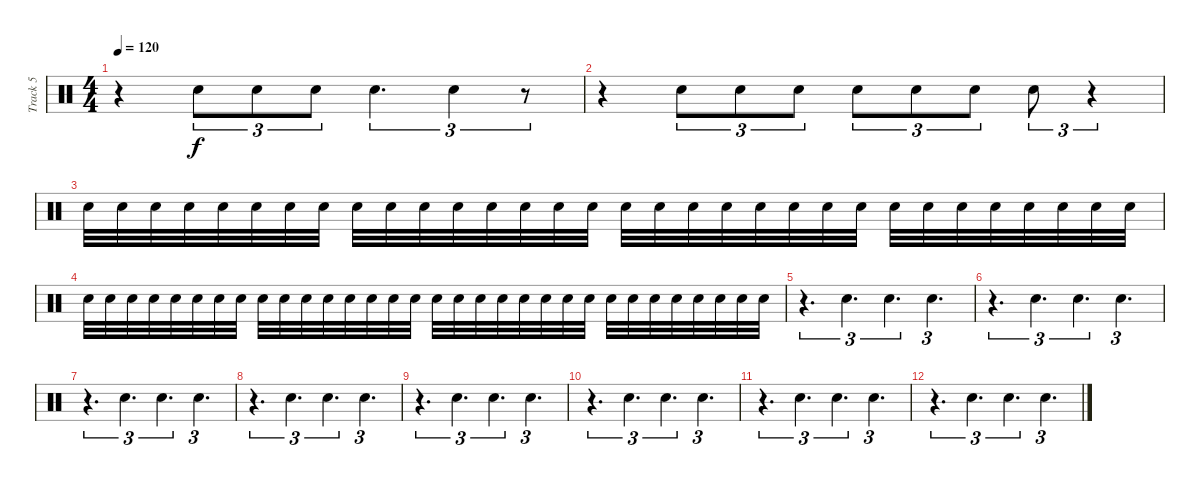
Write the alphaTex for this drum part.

\track ("Track 5" "Track 5") {instrument percussion}
\staff {score}
\articulation defaults
\ts (4 4)
\tempo 120
\clef neutral
\ks c
r.4{dy f} "Electric Snare (hit)".8{tu (3 2)} "Electric Snare (hit)".8{tu (3 2)} "Electric Snare (hit)".8{tu (3 2)} "Electric Snare (hit)".4{d tu (3 2)} "Electric Snare (hit)".4{tu (3 2)} r.8{tu (3 2)} |
r.4 "Electric Snare (hit)".8{tu (3 2)} "Electric Snare (hit)".8{tu (3 2)} "Electric Snare (hit)".8{tu (3 2)} "Electric Snare (hit)".8{tu (3 2)} "Electric Snare (hit)".8{tu (3 2)} "Electric Snare (hit)".8{tu (3 2)} "Electric Snare (hit)".8{tu (3 2)} r.4{tu (3 2)} |
"Electric Snare (hit)".32 "Electric Snare (hit)".32 "Electric Snare (hit)".32 "Electric Snare (hit)".32 "Electric Snare (hit)".32 "Electric Snare (hit)".32 "Electric Snare (hit)".32 "Electric Snare (hit)".32 "Electric Snare (hit)".32 "Electric Snare (hit)".32 "Electric Snare (hit)".32 "Electric Snare (hit)".32 "Electric Snare (hit)".32 "Electric Snare (hit)".32 "Electric Snare (hit)".32 "Electric Snare (hit)".32 "Electric Snare (hit)".32 "Electric Snare (hit)".32 "Electric Snare (hit)".32 "Electric Snare (hit)".32 "Electric Snare (hit)".32 "Electric Snare (hit)".32 "Electric Snare (hit)".32 "Electric Snare (hit)".32 "Electric Snare (hit)".32 "Electric Snare (hit)".32 "Electric Snare (hit)".32 "Electric Snare (hit)".32 "Electric Snare (hit)".32 "Electric Snare (hit)".32 "Electric Snare (hit)".32 "Electric Snare (hit)".32 |
"Electric Snare (hit)".32 "Electric Snare (hit)".32 "Electric Snare (hit)".32 "Electric Snare (hit)".32 "Electric Snare (hit)".32 "Electric Snare (hit)".32 "Electric Snare (hit)".32 "Electric Snare (hit)".32 "Electric Snare (hit)".32 "Electric Snare (hit)".32 "Electric Snare (hit)".32 "Electric Snare (hit)".32 "Electric Snare (hit)".32 "Electric Snare (hit)".32 "Electric Snare (hit)".32 "Electric Snare (hit)".32 "Electric Snare (hit)".32 "Electric Snare (hit)".32 "Electric Snare (hit)".32 "Electric Snare (hit)".32 "Electric Snare (hit)".32 "Electric Snare (hit)".32 "Electric Snare (hit)".32 "Electric Snare (hit)".32 "Electric Snare (hit)".32 "Electric Snare (hit)".32 "Electric Snare (hit)".32 "Electric Snare (hit)".32 "Electric Snare (hit)".32 "Electric Snare (hit)".32 "Electric Snare (hit)".32 "Electric Snare (hit)".32 |
r.4{d tu (3 2)} "Electric Snare (hit)".4{d tu (3 2)} "Electric Snare (hit)".4{d tu (3 2)} "Electric Snare (hit)".4{d tu (3 2)} |
r.4{d tu (3 2)} "Electric Snare (hit)".4{d tu (3 2)} "Electric Snare (hit)".4{d tu (3 2)} "Electric Snare (hit)".4{d tu (3 2)} |
r.4{d tu (3 2)} "Electric Snare (hit)".4{d tu (3 2)} "Electric Snare (hit)".4{d tu (3 2)} "Electric Snare (hit)".4{d tu (3 2)} |
r.4{d tu (3 2)} "Electric Snare (hit)".4{d tu (3 2)} "Electric Snare (hit)".4{d tu (3 2)} "Electric Snare (hit)".4{d tu (3 2)} |
r.4{d tu (3 2)} "Electric Snare (hit)".4{d tu (3 2)} "Electric Snare (hit)".4{d tu (3 2)} "Electric Snare (hit)".4{d tu (3 2)} |
r.4{d tu (3 2)} "Electric Snare (hit)".4{d tu (3 2)} "Electric Snare (hit)".4{d tu (3 2)} "Electric Snare (hit)".4{d tu (3 2)} |
r.4{d tu (3 2)} "Electric Snare (hit)".4{d tu (3 2)} "Electric Snare (hit)".4{d tu (3 2)} "Electric Snare (hit)".4{d tu (3 2)} |
r.4{d tu (3 2)} "Electric Snare (hit)".4{d tu (3 2)} "Electric Snare (hit)".4{d tu (3 2)} "Electric Snare (hit)".4{d tu (3 2)}
